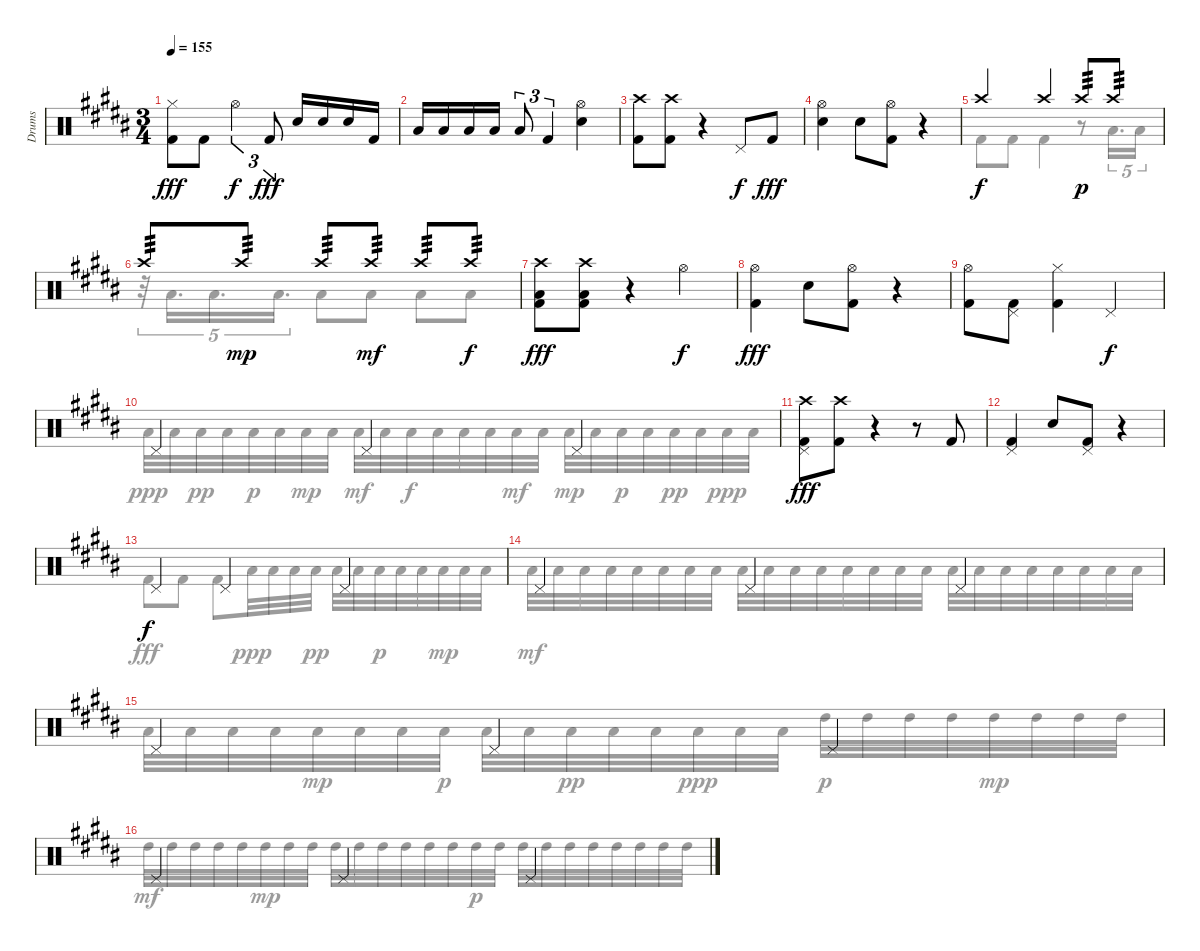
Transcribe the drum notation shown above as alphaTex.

\track ("Drums" "Drums") {instrument percussion}
\staff {score}
\articulation defaults
\voice
\ts (3 4)
\tempo 155
\clef neutral
\ks b
("Hi-Hat (closed)" "Kick (hit) 2").8{dy fff} "Kick (hit) 2".8 "Hi-Hat (open)".4{tu (3 2) dy f} "Kick (hit) 2".8{tu (3 2) dy fff} "Snare (hit) 2".16 "Snare (hit) 2".16 "Snare (hit) 2".16 "Kick (hit) 2".16 |
"Low Tom (hit)".16 "Low Tom (hit)".16 "Low Tom (hit)".16 "Low Tom (hit)".16 "Low Tom (hit)".8{tu (3 2)} "Kick (hit) 2".4{tu (3 2)} ("Hi-Hat (open)" "Snare (hit) 2").4 |
("Crash high (hit)" "Kick (hit) 2").8 ("Crash high (hit)" "Kick (hit) 2").8 r.4 "Pedal Hi-Hat (hit)".8{dy f} "Kick (hit) 2".8{dy fff} |
("Hi-Hat (open)" "Snare (hit) 2").4 "Snare (hit) 2".8 ("Hi-Hat (open)" "Kick (hit) 2").8 r.4 |
"Crash high (hit)".4{dy f} "Crash high (hit)".4 "Crash high (hit)".8{tp 3 dy p} "Crash high (hit)".8{tp 3} |
"Crash high (hit)".8{tp 3} "Crash high (hit)".8{tp 3 dy mp} "Crash high (hit)".8{tp 3} "Crash high (hit)".8{tp 3 dy mf} "Crash high (hit)".8{tp 3} "Crash high (hit)".8{tp 3 dy f} |
("Crash high (hit)" "Low Tom (hit)" "Kick (hit) 2").8{dy fff} ("Crash high (hit)" "Low Tom (hit)" "Kick (hit) 2").8 r.4 "Hi-Hat (open)".4{dy f} |
("Hi-Hat (open)" "Kick (hit) 2").4{dy fff} "Snare (hit) 2".8 ("Hi-Hat (open)" "Kick (hit) 2").8 r.4 |
("Hi-Hat (open)" "Kick (hit) 2").8 ("Pedal Hi-Hat (hit)" "Kick (hit) 2").8 ("Hi-Hat (closed)" "Kick (hit) 2").4 "Pedal Hi-Hat (hit)".4{dy f} |
"Pedal Hi-Hat (hit)".4 "Pedal Hi-Hat (hit)".4 "Pedal Hi-Hat (hit)".4 |
("Pedal Hi-Hat (hit)" "Crash high (hit)" "Kick (hit) 2").8{dy fff} ("Crash high (hit)" "Kick (hit) 2").8 r.4 r.8 "Kick (hit) 2".8 |
("Pedal Hi-Hat (hit)" "Kick (hit) 2").4 "Snare (hit) 2".8 ("Pedal Hi-Hat (hit)" "Kick (hit) 2").8 r.4 |
"Pedal Hi-Hat (hit)".4{dy f} "Pedal Hi-Hat (hit)".4 "Pedal Hi-Hat (hit)".4 |
"Pedal Hi-Hat (hit)".4 "Pedal Hi-Hat (hit)".4 "Pedal Hi-Hat (hit)".4 |
"Pedal Hi-Hat (hit)".4 "Pedal Hi-Hat (hit)".4 "Pedal Hi-Hat (hit)".4 |
"Pedal Hi-Hat (hit)".4 "Pedal Hi-Hat (hit)".4 "Pedal Hi-Hat (hit)".4
\voice
\clef neutral
\ottava regular
\simile none
\ks b
|
|
|
|
"Kick (hit) 2".8 "Kick (hit) 2".8 "Kick (hit) 2".4 r.8 "Low Tom (hit)".16{d tu (5 4)} "Low Tom (hit)".16{tu (5 4)} |
r.32{tu (5 4)} "Low Tom (hit)".16{d tu (5 4)} "Low Tom (hit)".16{d tu (5 4)} "Low Tom (hit)".16{d tu (5 4)} "Low Tom (hit)".8 "Low Tom (hit)".8 "Low Tom (hit)".8 "Low Tom (hit)".8 |
|
|
|
"Low Tom (hit)".32{dy ppp} "Low Tom (hit)".32 "Low Tom (hit)".32{dy pp} "Low Tom (hit)".32 "Low Tom (hit)".32{dy p} "Low Tom (hit)".32 "Low Tom (hit)".32{dy mp} "Low Tom (hit)".32 "Low Tom (hit)".32{dy mf} "Low Tom (hit)".32 "Low Tom (hit)".32{dy f} "Low Tom (hit)".32 "Low Tom (hit)".32 "Low Tom (hit)".32 "Low Tom (hit)".32{dy mf} "Low Tom (hit)".32 "Low Tom (hit)".32{dy mp} "Low Tom (hit)".32 "Low Tom (hit)".32{dy p} "Low Tom (hit)".32 "Low Tom (hit)".32{dy pp} "Low Tom (hit)".32 "Low Tom (hit)".32{dy ppp} "Low Tom (hit)".32 |
|
|
"Kick (hit) 2".8{dy fff} "Kick (hit) 2".8 "Kick (hit) 2".8 "Low Tom (hit)".32{dy ppp} "Low Tom (hit)".32 "Low Tom (hit)".32 "Low Tom (hit)".32{dy pp} "Low Tom (hit)".32 "Low Tom (hit)".32 "Low Tom (hit)".32{dy p} "Low Tom (hit)".32 "Low Tom (hit)".32 "Low Tom (hit)".32{dy mp} "Low Tom (hit)".32 "Low Tom (hit)".32 |
"Low Tom (hit)".32{dy mf} "Low Tom (hit)".32 "Low Tom (hit)".32 "Low Tom (hit)".32 "Low Tom (hit)".32 "Low Tom (hit)".32 "Low Tom (hit)".32 "Low Tom (hit)".32 "Low Tom (hit)".32 "Low Tom (hit)".32 "Low Tom (hit)".32 "Low Tom (hit)".32 "Low Tom (hit)".32 "Low Tom (hit)".32 "Low Tom (hit)".32 "Low Tom (hit)".32 "Low Tom (hit)".32 "Low Tom (hit)".32 "Low Tom (hit)".32 "Low Tom (hit)".32 "Low Tom (hit)".32 "Low Tom (hit)".32 "Low Tom (hit)".32 "Low Tom (hit)".32 |
"Low Tom (hit)".32 "Low Tom (hit)".32 "Low Tom (hit)".32 "Low Tom (hit)".32 "Low Tom (hit)".32{dy mp} "Low Tom (hit)".32 "Low Tom (hit)".32 "Low Tom (hit)".32{dy p} "Low Tom (hit)".32 "Low Tom (hit)".32 "Low Tom (hit)".32{dy pp} "Low Tom (hit)".32 "Low Tom (hit)".32 "Low Tom (hit)".32{dy ppp} "Low Tom (hit)".32 "Low Tom (hit)".32 "High Tom (hit)".32{dy p} "High Tom (hit)".32 "High Tom (hit)".32 "High Tom (hit)".32 "High Tom (hit)".32{dy mp} "High Tom (hit)".32 "High Tom (hit)".32 "High Tom (hit)".32 |
"High Tom (hit)".32{dy mf} "High Tom (hit)".32 "High Tom (hit)".32 "High Tom (hit)".32 "High Tom (hit)".32 "High Tom (hit)".32{dy mp} "High Tom (hit)".32 "High Tom (hit)".32 "High Tom (hit)".32 "High Tom (hit)".32 "High Tom (hit)".32 "High Tom (hit)".32 "High Tom (hit)".32 "High Tom (hit)".32 "High Tom (hit)".32{dy p} "High Tom (hit)".32 "High Tom (hit)".32 "High Tom (hit)".32 "High Tom (hit)".32 "High Tom (hit)".32 "High Tom (hit)".32 "High Tom (hit)".32 "High Tom (hit)".32 "High Tom (hit)".32
